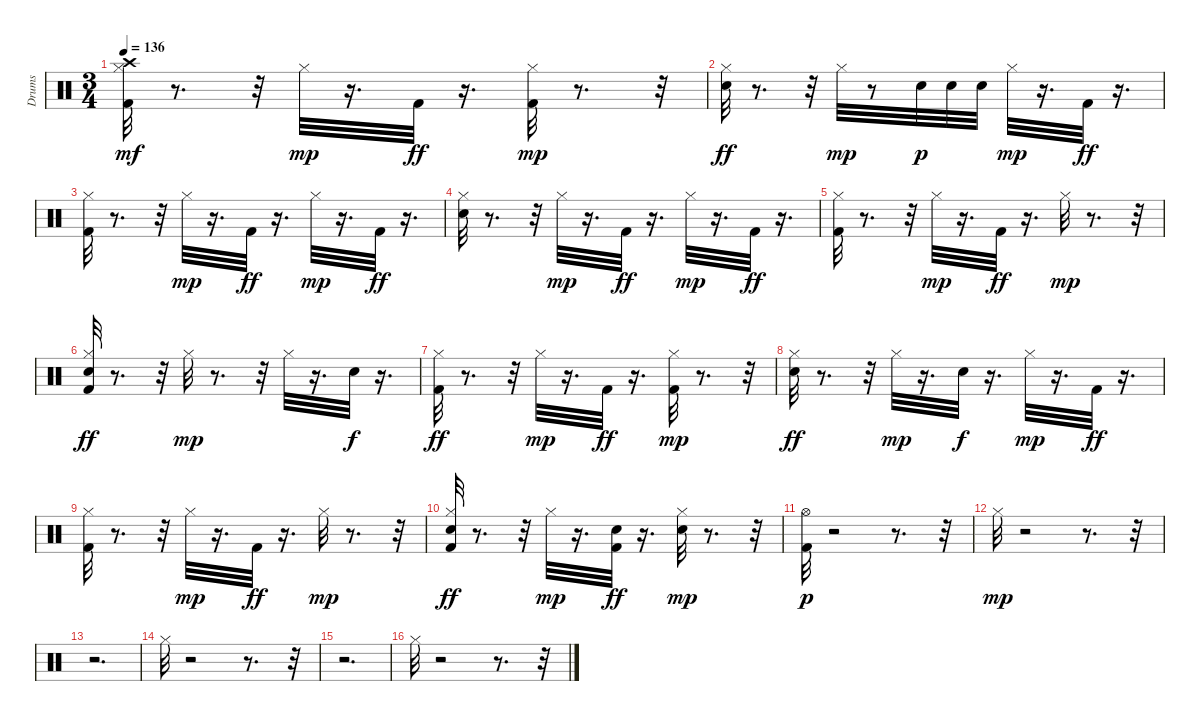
\track ("Drums  " "Drums  ") {instrument percussion}
\staff {score}
\articulation defaults
\ts (3 4)
\tempo 136
\clef neutral
\ks c
("Kick (hit) 2" "Hi-Hat (closed)" "Crash high (hit)").32{dy mf} r.8{d} r.32 "Hi-Hat (closed)".32{dy mp} r.16{d} "Kick (hit) 2".32{dy ff} r.16{d} ("Kick (hit) 2" "Hi-Hat (closed)").32{dy mp} r.8{d} r.32 |
("Snare (hit) 2" "Hi-Hat (closed)").32{dy ff} r.8{d} r.32 "Hi-Hat (closed)".32{dy mp} r.8 "Snare (hit) 2".32{dy p} "Snare (hit) 2".32 "Snare (hit) 2".32 "Hi-Hat (closed)".32{dy mp} r.16{d} "Kick (hit) 2".32{dy ff} r.16{d} |
("Kick (hit) 2" "Hi-Hat (closed)").32 r.8{d} r.32 "Hi-Hat (closed)".32{dy mp} r.16{d} "Kick (hit) 2".32{dy ff} r.16{d} "Hi-Hat (closed)".32{dy mp} r.16{d} "Kick (hit) 2".32{dy ff} r.16{d} |
("Snare (hit) 2" "Hi-Hat (closed)").32 r.8{d} r.32 "Hi-Hat (closed)".32{dy mp} r.16{d} "Kick (hit) 2".32{dy ff} r.16{d} "Hi-Hat (closed)".32{dy mp} r.16{d} "Kick (hit) 2".32{dy ff} r.16{d} |
("Kick (hit) 2" "Hi-Hat (closed)").32 r.8{d} r.32 "Hi-Hat (closed)".32{dy mp} r.16{d} "Kick (hit) 2".32{dy ff} r.16{d} "Hi-Hat (closed)".32{dy mp} r.8{d} r.32 |
("Snare (hit) 2" "Kick (hit) 2" "Hi-Hat (closed)").32{dy ff} r.8{d} r.32 "Hi-Hat (closed)".32{dy mp} r.8{d} r.32 "Hi-Hat (closed)".32 r.16{d} "Snare (hit) 2".32{dy f} r.16{d} |
("Kick (hit) 2" "Hi-Hat (closed)").32{dy ff} r.8{d} r.32 "Hi-Hat (closed)".32{dy mp} r.16{d} "Kick (hit) 2".32{dy ff} r.16{d} ("Kick (hit) 2" "Hi-Hat (closed)").32{dy mp} r.8{d} r.32 |
("Snare (hit) 2" "Hi-Hat (closed)").32{dy ff} r.8{d} r.32 "Hi-Hat (closed)".32{dy mp} r.16{d} "Snare (hit) 2".32{dy f} r.16{d} "Hi-Hat (closed)".32{dy mp} r.16{d} "Kick (hit) 2".32{dy ff} r.16{d} |
("Kick (hit) 2" "Hi-Hat (closed)").32 r.8{d} r.32 "Hi-Hat (closed)".32{dy mp} r.16{d} "Kick (hit) 2".32{dy ff} r.16{d} "Hi-Hat (closed)".32{dy mp} r.8{d} r.32 |
("Kick (hit) 2" "Snare (hit) 2" "Hi-Hat (closed)").32{dy ff} r.8{d} r.32 "Hi-Hat (closed)".32{dy mp} r.16{d} ("Kick (hit) 2" "Snare (hit) 2").32{dy ff} r.16{d} ("Snare (hit) 2" "Hi-Hat (closed)").32{dy mp} r.8{d} r.32 |
("Kick (hit) 2" "Hi-Hat (open)").32{dy p} r.2 r.8{d} r.32 |
"Hi-Hat (closed)".32{dy mp} r.2 r.8{d} r.32 |
r.2{d} |
"Hi-Hat (closed)".32 r.2 r.8{d} r.32 |
r.2{d} |
"Hi-Hat (closed)".32 r.2 r.8{d} r.32
